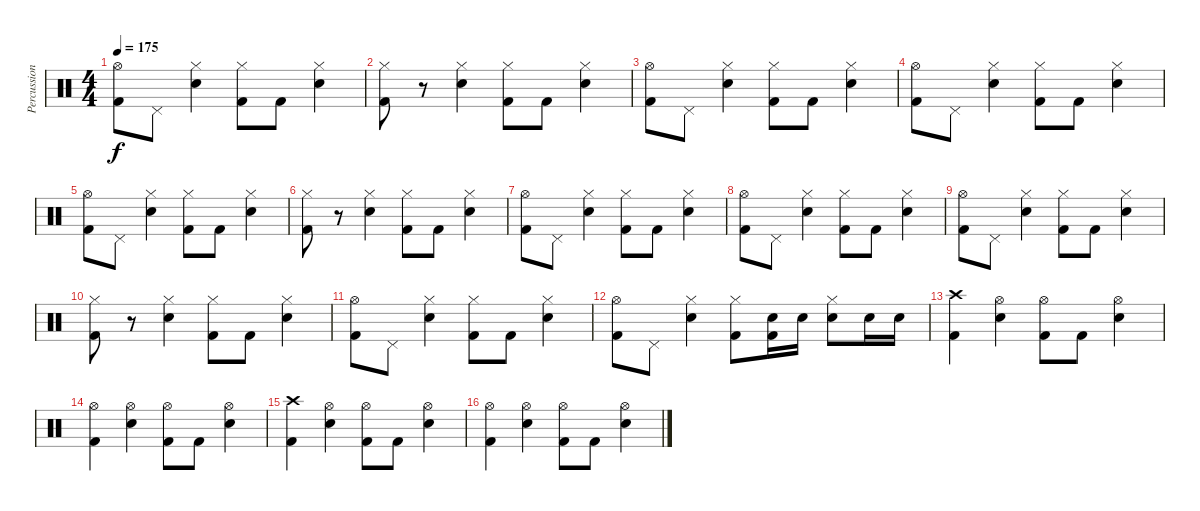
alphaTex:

\track ("Percussion" "Percussion") {instrument percussion}
\staff {score}
\articulation defaults
\ts (4 4)
\tempo 175
\clef neutral
\ks c
("Kick (hit) 2" "Hi-Hat (open)").8{dy f} "Pedal Hi-Hat (hit)".8 ("Electric Snare (hit)" "Hi-Hat (closed)").4 ("Kick (hit) 2" "Hi-Hat (closed)").8 "Kick (hit) 2".8 ("Electric Snare (hit)" "Hi-Hat (closed)").4 |
("Kick (hit) 2" "Hi-Hat (closed)").8 r.8 ("Electric Snare (hit)" "Hi-Hat (closed)").4 ("Kick (hit) 2" "Hi-Hat (closed)").8 "Kick (hit) 2".8 ("Electric Snare (hit)" "Hi-Hat (closed)").4 |
("Kick (hit) 2" "Hi-Hat (open)").8 "Pedal Hi-Hat (hit)".8 ("Electric Snare (hit)" "Hi-Hat (closed)").4 ("Kick (hit) 2" "Hi-Hat (closed)").8 "Kick (hit) 2".8 ("Electric Snare (hit)" "Hi-Hat (closed)").4 |
("Kick (hit) 2" "Hi-Hat (open)").8 "Pedal Hi-Hat (hit)".8 ("Electric Snare (hit)" "Hi-Hat (closed)").4 ("Kick (hit) 2" "Hi-Hat (closed)").8 "Kick (hit) 2".8 ("Electric Snare (hit)" "Hi-Hat (closed)").4 |
("Kick (hit) 2" "Hi-Hat (open)").8 "Pedal Hi-Hat (hit)".8 ("Electric Snare (hit)" "Hi-Hat (closed)").4 ("Kick (hit) 2" "Hi-Hat (closed)").8 "Kick (hit) 2".8 ("Electric Snare (hit)" "Hi-Hat (closed)").4 |
("Kick (hit) 2" "Hi-Hat (closed)").8 r.8 ("Electric Snare (hit)" "Hi-Hat (closed)").4 ("Kick (hit) 2" "Hi-Hat (closed)").8 "Kick (hit) 2".8 ("Electric Snare (hit)" "Hi-Hat (closed)").4 |
("Kick (hit) 2" "Hi-Hat (open)").8 "Pedal Hi-Hat (hit)".8 ("Electric Snare (hit)" "Hi-Hat (closed)").4 ("Kick (hit) 2" "Hi-Hat (closed)").8 "Kick (hit) 2".8 ("Electric Snare (hit)" "Hi-Hat (closed)").4 |
("Kick (hit) 2" "Hi-Hat (open)").8 "Pedal Hi-Hat (hit)".8 ("Electric Snare (hit)" "Hi-Hat (closed)").4 ("Kick (hit) 2" "Hi-Hat (closed)").8 "Kick (hit) 2".8 ("Electric Snare (hit)" "Hi-Hat (closed)").4 |
("Kick (hit) 2" "Hi-Hat (open)").8 "Pedal Hi-Hat (hit)".8 ("Electric Snare (hit)" "Hi-Hat (closed)").4 ("Kick (hit) 2" "Hi-Hat (closed)").8 "Kick (hit) 2".8 ("Electric Snare (hit)" "Hi-Hat (closed)").4 |
("Kick (hit) 2" "Hi-Hat (closed)").8 r.8 ("Electric Snare (hit)" "Hi-Hat (closed)").4 ("Kick (hit) 2" "Hi-Hat (closed)").8 "Kick (hit) 2".8 ("Electric Snare (hit)" "Hi-Hat (closed)").4 |
("Kick (hit) 2" "Hi-Hat (open)").8 "Pedal Hi-Hat (hit)".8 ("Electric Snare (hit)" "Hi-Hat (closed)").4 ("Kick (hit) 2" "Hi-Hat (closed)").8 "Kick (hit) 2".8 ("Electric Snare (hit)" "Hi-Hat (closed)").4 |
("Kick (hit) 2" "Hi-Hat (open)").8 "Pedal Hi-Hat (hit)".8 ("Electric Snare (hit)" "Hi-Hat (closed)").4 ("Kick (hit) 2" "Hi-Hat (closed)").8 ("Kick (hit) 2" "Electric Snare (hit)").16 "Electric Snare (hit)".16 ("Electric Snare (hit)" "Hi-Hat (closed)").8 "Electric Snare (hit)".16 "Electric Snare (hit)".16 |
("Kick (hit) 2" "Crash high (hit)").4 ("Electric Snare (hit)" "Hi-Hat (open)").4 ("Kick (hit) 2" "Hi-Hat (open)").8 "Kick (hit) 2".8 ("Electric Snare (hit)" "Hi-Hat (open)").4 |
("Kick (hit) 2" "Hi-Hat (open)").4 ("Electric Snare (hit)" "Hi-Hat (open)").4 ("Kick (hit) 2" "Hi-Hat (open)").8 "Kick (hit) 2".8 ("Electric Snare (hit)" "Hi-Hat (open)").4 |
("Kick (hit) 2" "Crash high (hit)").4 ("Electric Snare (hit)" "Hi-Hat (open)").4 ("Kick (hit) 2" "Hi-Hat (open)").8 "Kick (hit) 2".8 ("Electric Snare (hit)" "Hi-Hat (open)").4 |
("Kick (hit) 2" "Hi-Hat (open)").4 ("Electric Snare (hit)" "Hi-Hat (open)").4 ("Kick (hit) 2" "Hi-Hat (open)").8 "Kick (hit) 2".8 ("Electric Snare (hit)" "Hi-Hat (open)").4
